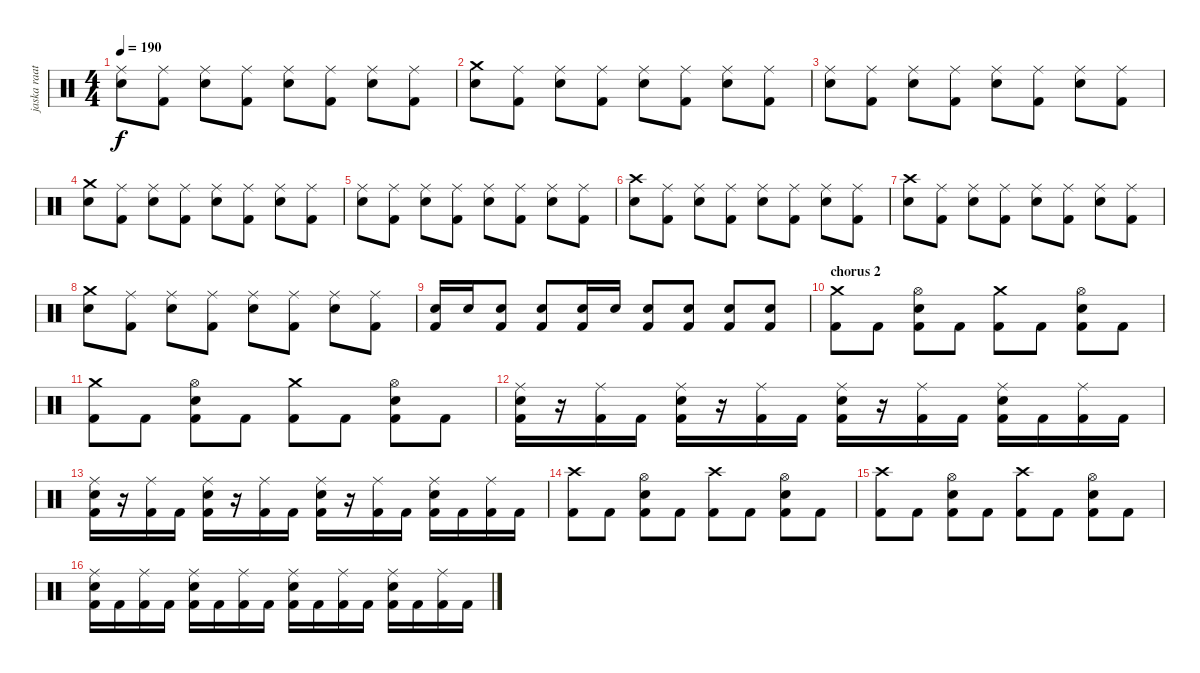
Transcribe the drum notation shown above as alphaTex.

\track ("jaska raatikainen" "jaska raat") {instrument percussion}
\staff {score}
\articulation defaults
\ts (4 4)
\tempo 190
\clef neutral
\ks c
("Ride (middle)" "Snare (hit) 2").8{dy f} ("Ride (middle)" "Kick (hit) 2").8 ("Ride (middle)" "Snare (hit) 2").8 ("Ride (middle)" "Kick (hit) 2").8 ("Ride (middle)" "Snare (hit) 2").8 ("Ride (middle)" "Kick (hit) 2").8 ("Ride (middle)" "Snare (hit) 2").8 ("Ride (middle)" "Kick (hit) 2").8 |
("Crash medium (hit)" "Snare (hit) 2").8 ("Ride (middle)" "Kick (hit) 2").8 ("Ride (middle)" "Snare (hit) 2").8 ("Ride (middle)" "Kick (hit) 2").8 ("Ride (middle)" "Snare (hit) 2").8 ("Ride (middle)" "Kick (hit) 2").8 ("Ride (middle)" "Snare (hit) 2").8 ("Ride (middle)" "Kick (hit) 2").8 |
("Ride (middle)" "Snare (hit) 2").8 ("Ride (middle)" "Kick (hit) 2").8 ("Ride (middle)" "Snare (hit) 2").8 ("Ride (middle)" "Kick (hit) 2").8 ("Ride (middle)" "Snare (hit) 2").8 ("Ride (middle)" "Kick (hit) 2").8 ("Ride (middle)" "Snare (hit) 2").8 ("Ride (middle)" "Kick (hit) 2").8 |
("Crash medium (hit)" "Snare (hit) 2").8 ("Ride (middle)" "Kick (hit) 2").8 ("Ride (middle)" "Snare (hit) 2").8 ("Ride (middle)" "Kick (hit) 2").8 ("Ride (middle)" "Snare (hit) 2").8 ("Ride (middle)" "Kick (hit) 2").8 ("Ride (middle)" "Snare (hit) 2").8 ("Ride (middle)" "Kick (hit) 2").8 |
("Ride (middle)" "Snare (hit) 2").8 ("Ride (middle)" "Kick (hit) 2").8 ("Ride (middle)" "Snare (hit) 2").8 ("Ride (middle)" "Kick (hit) 2").8 ("Ride (middle)" "Snare (hit) 2").8 ("Ride (middle)" "Kick (hit) 2").8 ("Ride (middle)" "Snare (hit) 2").8 ("Ride (middle)" "Kick (hit) 2").8 |
("Crash high (hit)" "Snare (hit) 2").8 ("Ride (middle)" "Kick (hit) 2").8 ("Ride (middle)" "Snare (hit) 2").8 ("Ride (middle)" "Kick (hit) 2").8 ("Ride (middle)" "Snare (hit) 2").8 ("Ride (middle)" "Kick (hit) 2").8 ("Ride (middle)" "Snare (hit) 2").8 ("Ride (middle)" "Kick (hit) 2").8 |
("Crash high (hit)" "Snare (hit) 2").8 ("Ride (middle)" "Kick (hit) 2").8 ("Ride (middle)" "Snare (hit) 2").8 ("Ride (middle)" "Kick (hit) 2").8 ("Ride (middle)" "Snare (hit) 2").8 ("Ride (middle)" "Kick (hit) 2").8 ("Ride (middle)" "Snare (hit) 2").8 ("Ride (middle)" "Kick (hit) 2").8 |
("Crash medium (hit)" "Snare (hit) 2").8 ("Ride (middle)" "Kick (hit) 2").8 ("Ride (middle)" "Snare (hit) 2").8 ("Ride (middle)" "Kick (hit) 2").8 ("Ride (middle)" "Snare (hit) 2").8 ("Ride (middle)" "Kick (hit) 2").8 ("Ride (middle)" "Snare (hit) 2").8 ("Ride (middle)" "Kick (hit) 2").8 |
("Snare (hit) 2" "Kick (hit) 2").16 "Snare (hit) 2".16 ("Snare (hit) 2" "Kick (hit) 2").8 ("Snare (hit) 2" "Kick (hit) 2").8 ("Snare (hit) 2" "Kick (hit) 2").16 "Snare (hit) 2".16 ("Snare (hit) 2" "Kick (hit) 2").8 ("Snare (hit) 2" "Kick (hit) 2").8 ("Snare (hit) 2" "Kick (hit) 2").8 ("Snare (hit) 2" "Kick (hit) 2").8 |
\section ("" "chorus 2")
("Crash medium (hit)" "Kick (hit) 2").8 "Kick (hit) 2".8 ("Hi-Hat (open)" "Snare (hit) 2" "Kick (hit) 2").8 "Kick (hit) 2".8 ("Crash medium (hit)" "Kick (hit) 2").8 "Kick (hit) 2".8 ("Hi-Hat (open)" "Snare (hit) 2" "Kick (hit) 2").8 "Kick (hit) 2".8 |
("Crash medium (hit)" "Kick (hit) 2").8 "Kick (hit) 2".8 ("Hi-Hat (open)" "Snare (hit) 2" "Kick (hit) 2").8 "Kick (hit) 2".8 ("Crash medium (hit)" "Kick (hit) 2").8 "Kick (hit) 2".8 ("Hi-Hat (open)" "Snare (hit) 2" "Kick (hit) 2").8 "Kick (hit) 2".8 |
("Ride (middle)" "Snare (hit) 2" "Kick (hit) 2").16 r.16 ("Ride (middle)" "Kick (hit) 2").16 "Kick (hit) 2".16 ("Ride (middle)" "Snare (hit) 2" "Kick (hit) 2").16 r.16 ("Ride (middle)" "Kick (hit) 2").16 "Kick (hit) 2".16 ("Ride (middle)" "Snare (hit) 2" "Kick (hit) 2").16 r.16 ("Ride (middle)" "Kick (hit) 2").16 "Kick (hit) 2".16 ("Ride (middle)" "Snare (hit) 2" "Kick (hit) 2").16 "Kick (hit) 2".16 ("Ride (middle)" "Kick (hit) 2").16 "Kick (hit) 2".16 |
("Ride (middle)" "Snare (hit) 2" "Kick (hit) 2").16 r.16 ("Ride (middle)" "Kick (hit) 2").16 "Kick (hit) 2".16 ("Ride (middle)" "Snare (hit) 2" "Kick (hit) 2").16 r.16 ("Ride (middle)" "Kick (hit) 2").16 "Kick (hit) 2".16 ("Ride (middle)" "Snare (hit) 2" "Kick (hit) 2").16 r.16 ("Ride (middle)" "Kick (hit) 2").16 "Kick (hit) 2".16 ("Ride (middle)" "Snare (hit) 2" "Kick (hit) 2").16 "Kick (hit) 2".16 ("Ride (middle)" "Kick (hit) 2").16 "Kick (hit) 2".16 |
("Crash high (hit)" "Kick (hit) 2").8 "Kick (hit) 2".8 ("Hi-Hat (open)" "Snare (hit) 2" "Kick (hit) 2").8 "Kick (hit) 2".8 ("Crash high (hit)" "Kick (hit) 2").8 "Kick (hit) 2".8 ("Hi-Hat (open)" "Snare (hit) 2" "Kick (hit) 2").8 "Kick (hit) 2".8 |
("Crash high (hit)" "Kick (hit) 2").8 "Kick (hit) 2".8 ("Hi-Hat (open)" "Snare (hit) 2" "Kick (hit) 2").8 "Kick (hit) 2".8 ("Crash high (hit)" "Kick (hit) 2").8 "Kick (hit) 2".8 ("Hi-Hat (open)" "Snare (hit) 2" "Kick (hit) 2").8 "Kick (hit) 2".8 |
("Ride (middle)" "Snare (hit) 2" "Kick (hit) 2").16 "Kick (hit) 2".16 ("Ride (middle)" "Kick (hit) 2").16 "Kick (hit) 2".16 ("Ride (middle)" "Snare (hit) 2" "Kick (hit) 2").16 "Kick (hit) 2".16 ("Ride (middle)" "Kick (hit) 2").16 "Kick (hit) 2".16 ("Ride (middle)" "Snare (hit) 2" "Kick (hit) 2").16 "Kick (hit) 2".16 ("Ride (middle)" "Kick (hit) 2").16 "Kick (hit) 2".16 ("Ride (middle)" "Snare (hit) 2" "Kick (hit) 2").16 "Kick (hit) 2".16 ("Ride (middle)" "Kick (hit) 2").16 "Kick (hit) 2".16
